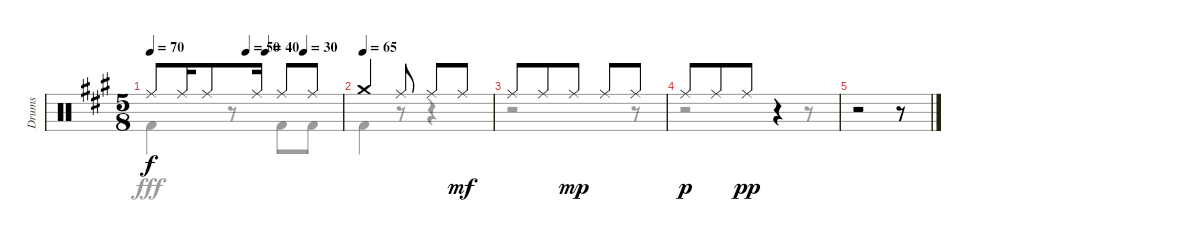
\track ("Drums" "Drums") {instrument percussion}
\staff {score}
\articulation defaults
\voice
\ts (5 8)
\tempo 70
\tempo (50 0.5)
\tempo (40 0.6)
\tempo (30 0.8)
\clef neutral
\ks a "Ride (middle)".8{dy f} "Ride (middle)".16 "Ride (middle)".8 "Ride (middle)".16 "Ride (middle)".8 "Ride (middle)".8
|
\tempo (65)
"Crash medium (hit)".4 "Ride (middle)".8 "Ride (middle)".8 "Ride (middle)".8{dy mf} |
"Ride (middle)".8 "Ride (middle)".8 "Ride (middle)".8{dy mp} "Ride (middle)".8 "Ride (middle)".8 |
"Ride (middle)".8{dy p} "Ride (middle)".8 "Ride (middle)".8{dy pp} r.4 |
r.2 r.8
\voice
\clef neutral
\ottava regular
\simile none
\ks a "Kick (hit) 2".4{dy fff}
r.8 "Kick (hit) 2".8 "Kick (hit) 2".8 |
"Kick (hit) 2".4 r.8 r.4 |
r.2 r.8 |
r.2 r.8 |
r.2 r.8
